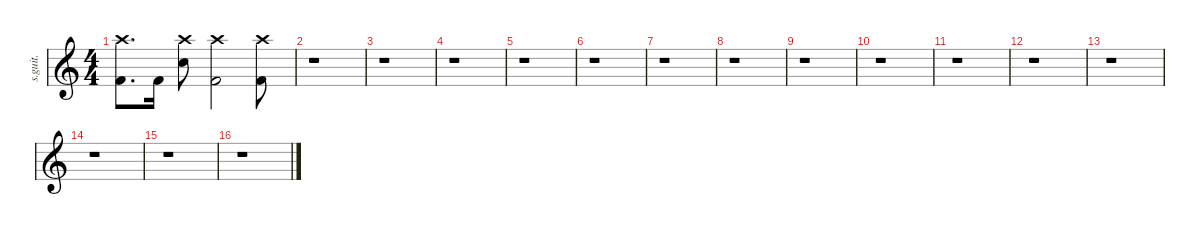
\defaultSystemsLayout 4
\hideDynamics
\bracketExtendMode nobrackets
\track ("" "s.guit.") {instrument percussion}
\staff {score}
\articulation defaults
\ts (4 4)
\tempo (95 hide)
\clef g2
\ks c
("Crash high (hit)" "Kick (hit) 2").8{d dy f} "Kick (hit) 2".16 ("Crash high (hit)" "Snare (hit) 2").8 ("Crash high (hit)" "Kick (hit) 2").2 ("Crash high (hit)" "Kick (hit) 2").8 |
r.1 |
r.1 |
r.1 |
r.1 |
r.1 |
r.1 |
r.1 |
r.1 |
r.1 |
r.1 |
r.1 |
r.1 |
r.1 |
r.1 |
r.1
